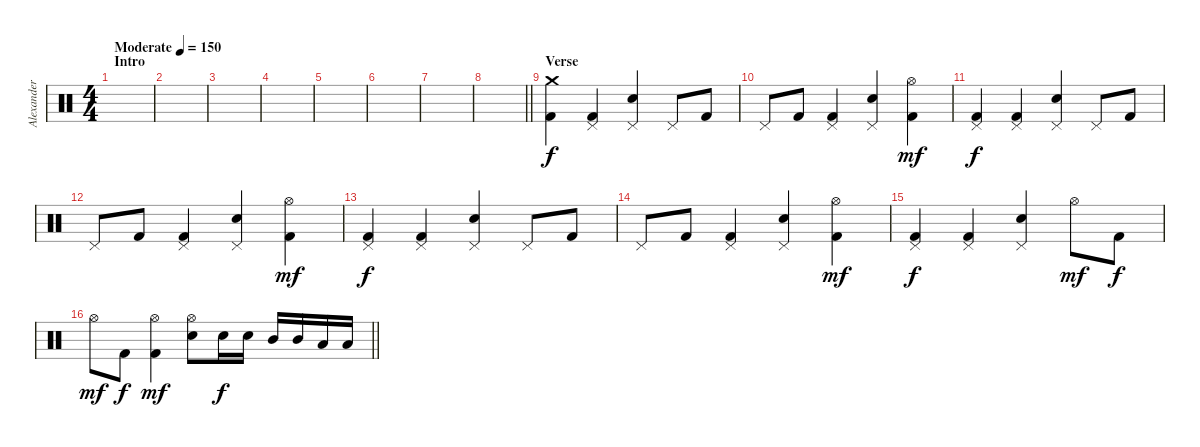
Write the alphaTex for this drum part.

\track ("Alexander Sveningsson" "Alexander ") {instrument percussion}
\staff {score}
\articulation defaults
\ts (4 4)
\section ("" "Intro")
\tempo (150 "Moderate")
\clef neutral
\ks c
|
|
|
|
|
|
|
\barLineRight lightlight
|
\section ("" "Verse")
("Crash medium (hit)" "Kick (hit) 2").4 ("Pedal Hi-Hat (hit)" "Kick (hit) 2").4 ("Pedal Hi-Hat (hit)" "Electric Snare (hit)").4 "Pedal Hi-Hat (hit)".8 "Kick (hit) 2".8 |
"Pedal Hi-Hat (hit)".8 "Kick (hit) 2".8 ("Pedal Hi-Hat (hit)" "Kick (hit) 2").4 ("Pedal Hi-Hat (hit)" "Electric Snare (hit)").4 ("Hi-Hat (open)" "Kick (hit) 2").4{dy mf} |
("Pedal Hi-Hat (hit)" "Kick (hit) 2").4{dy f} ("Pedal Hi-Hat (hit)" "Kick (hit) 2").4 ("Pedal Hi-Hat (hit)" "Electric Snare (hit)").4 "Pedal Hi-Hat (hit)".8 "Kick (hit) 2".8 |
"Pedal Hi-Hat (hit)".8 "Kick (hit) 2".8 ("Pedal Hi-Hat (hit)" "Kick (hit) 2").4 ("Pedal Hi-Hat (hit)" "Electric Snare (hit)").4 ("Hi-Hat (open)" "Kick (hit) 2").4{dy mf} |
("Pedal Hi-Hat (hit)" "Kick (hit) 2").4{dy f} ("Pedal Hi-Hat (hit)" "Kick (hit) 2").4 ("Pedal Hi-Hat (hit)" "Electric Snare (hit)").4 "Pedal Hi-Hat (hit)".8 "Kick (hit) 2".8 |
"Pedal Hi-Hat (hit)".8 "Kick (hit) 2".8 ("Pedal Hi-Hat (hit)" "Kick (hit) 2").4 ("Pedal Hi-Hat (hit)" "Electric Snare (hit)").4 ("Hi-Hat (open)" "Kick (hit) 2").4{dy mf} |
("Pedal Hi-Hat (hit)" "Kick (hit) 2").4{dy f} ("Pedal Hi-Hat (hit)" "Kick (hit) 2").4 ("Pedal Hi-Hat (hit)" "Electric Snare (hit)").4 "Hi-Hat (open)".8{dy mf} "Kick (hit) 2".8{dy f} |
\barLineRight lightlight "Hi-Hat (open)".8{dy mf} "Kick (hit) 2".8{dy f}
("Hi-Hat (open)" "Kick (hit) 2").4{dy mf} ("Hi-Hat (open)" "Electric Snare (hit)").8 "Electric Snare (hit)".16{dy f} "Electric Snare (hit)".16 "Mid Tom (hit)".16 "Mid Tom (hit)".16 "Low Tom (hit)".16 "Low Tom (hit)".16
